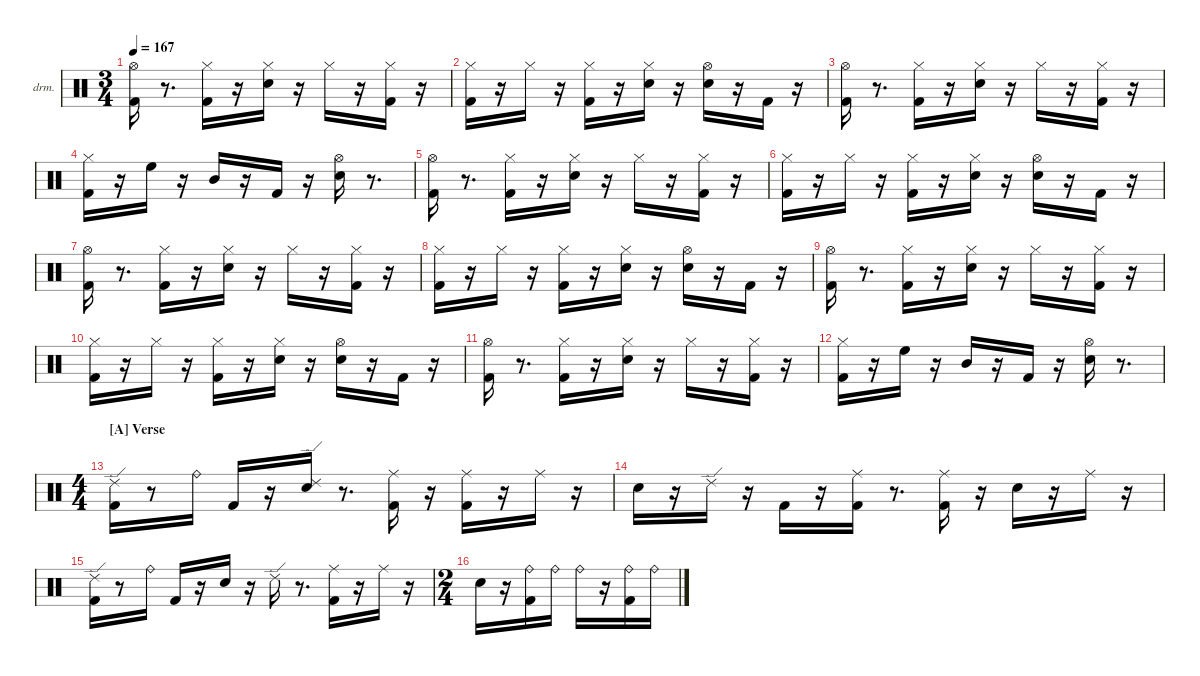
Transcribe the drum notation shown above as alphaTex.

\hideDynamics
\bracketExtendMode nobrackets
\firstSystemTrackNameOrientation horizontal
\otherSystemsTrackNameOrientation horizontal
\track ("Drums" "drm.") {instrument percussion}
\staff {score}
\articulation defaults
\ts (3 4)
\tempo 167
\clef neutral
\ks aminor
("Kick (hit) 2" "Hi-Hat (open)"{acc #}).16{dy ff} r.8{d} ("Kick (hit) 2" "Hi-Hat (closed)"{acc #}).16{dy f} r.16 ("Snare (hit) 2" "Hi-Hat (closed)"{acc #}).16{dy ff} r.16 "Hi-Hat (closed)"{acc #}.16 r.16 ("Kick (hit) 2" "Hi-Hat (closed)"{acc #}).16{dy mf} r.16 |
("Kick (hit) 2" "Hi-Hat (closed)"{acc #}).16{dy fff} r.16 "Hi-Hat (closed)"{acc #}.16{dy p} r.16 ("Kick (hit) 2" "Hi-Hat (closed)"{acc #}).16{dy ff} r.16 ("Snare (hit) 2" "Hi-Hat (closed)"{acc #}).16 r.16 ("Snare (hit) 2" "Hi-Hat (open)"{acc #}).16{dy ppp} r.16 "Kick (hit) 2".16{dy ff} r.16 |
("Kick (hit) 2" "Hi-Hat (open)"{acc #}).16 r.8{d} ("Kick (hit) 2" "Hi-Hat (closed)"{acc #}).16{dy f} r.16 ("Snare (hit) 2" "Hi-Hat (closed)"{acc #}).16{dy ff} r.16 "Hi-Hat (closed)"{acc #}.16 r.16 ("Kick (hit) 2" "Hi-Hat (closed)"{acc #}).16{dy mf} r.16 |
("Kick (hit) 2" "Hi-Hat (closed)"{acc #}).16{dy fff} r.16 "High Floor Tom (hit)".16{dy ff} r.16 "Mid Tom (hit)".16 r.16 "Kick (hit) 2".16 r.16 ("Snare (hit) 2" "Hi-Hat (open)"{acc #}).16 r.8{d} |
("Kick (hit) 2" "Hi-Hat (open)"{acc #}).16 r.8{d} ("Kick (hit) 2" "Hi-Hat (closed)"{acc #}).16{dy f} r.16 ("Snare (hit) 2" "Hi-Hat (closed)"{acc #}).16{dy ff} r.16 "Hi-Hat (closed)"{acc #}.16 r.16 ("Kick (hit) 2" "Hi-Hat (closed)"{acc #}).16{dy mf} r.16 |
("Kick (hit) 2" "Hi-Hat (closed)"{acc #}).16{dy fff} r.16 "Hi-Hat (closed)"{acc #}.16{dy p} r.16 ("Kick (hit) 2" "Hi-Hat (closed)"{acc #}).16{dy ff} r.16 ("Snare (hit) 2" "Hi-Hat (closed)"{acc #}).16 r.16 ("Snare (hit) 2" "Hi-Hat (open)"{acc #}).16{dy ppp} r.16 "Kick (hit) 2".16{dy ff} r.16 |
("Kick (hit) 2" "Hi-Hat (open)"{acc #}).16 r.8{d} ("Kick (hit) 2" "Hi-Hat (closed)"{acc #}).16{dy f} r.16 ("Snare (hit) 2" "Hi-Hat (closed)"{acc #}).16{dy ff} r.16 "Hi-Hat (closed)"{acc #}.16 r.16 ("Kick (hit) 2" "Hi-Hat (closed)"{acc #}).16{dy mf} r.16 |
("Kick (hit) 2" "Hi-Hat (closed)"{acc #}).16{dy fff} r.16 "Hi-Hat (closed)"{acc #}.16{dy p} r.16 ("Kick (hit) 2" "Hi-Hat (closed)"{acc #}).16{dy ff} r.16 ("Snare (hit) 2" "Hi-Hat (closed)"{acc #}).16 r.16 ("Snare (hit) 2" "Hi-Hat (open)"{acc #}).16{dy ppp} r.16 "Kick (hit) 2".16{dy ff} r.16 |
("Kick (hit) 2" "Hi-Hat (open)"{acc #}).16 r.8{d} ("Kick (hit) 2" "Hi-Hat (closed)"{acc #}).16{dy f} r.16 ("Snare (hit) 2" "Hi-Hat (closed)"{acc #}).16{dy ff} r.16 "Hi-Hat (closed)"{acc #}.16 r.16 ("Kick (hit) 2" "Hi-Hat (closed)"{acc #}).16{dy mf} r.16 |
("Kick (hit) 2" "Hi-Hat (closed)"{acc #}).16{dy fff} r.16 "Hi-Hat (closed)"{acc #}.16{dy p} r.16 ("Kick (hit) 2" "Hi-Hat (closed)"{acc #}).16{dy ff} r.16 ("Snare (hit) 2" "Hi-Hat (closed)"{acc #}).16 r.16 ("Snare (hit) 2" "Hi-Hat (open)"{acc #}).16{dy ppp} r.16 "Kick (hit) 2".16{dy ff} r.16 |
("Kick (hit) 2" "Hi-Hat (open)"{acc #}).16 r.8{d} ("Kick (hit) 2" "Hi-Hat (closed)"{acc #}).16{dy f} r.16 ("Snare (hit) 2" "Hi-Hat (closed)"{acc #}).16{dy ff} r.16 "Hi-Hat (closed)"{acc #}.16 r.16 ("Kick (hit) 2" "Hi-Hat (closed)"{acc #}).16{dy mf} r.16 |
("Kick (hit) 2" "Hi-Hat (closed)"{acc #}).16{dy fff} r.16 "High Floor Tom (hit)".16{dy ff} r.16 "Mid Tom (hit)".16 r.16 "Kick (hit) 2".16 r.16 ("Snare (hit) 2" "Hi-Hat (open)"{acc #}).16 r.8{d} |
\ts (4 4)
\section ("A" "Verse")
("Kick (hit) 2" "Ride (edge) 2").16 r.8 "Ride (bell)".16{dy mf} "Kick (hit) 2".16{dy ff} r.16 ("Snare (hit) 2" "Ride (edge) 2").16 r.8{d} ("Kick (hit) 2" "Ride (middle)"{acc #}).16{dy mf} r.16 ("Kick (hit) 2" "Ride (middle)"{acc #}).16{dy ff} r.16 "Ride (middle)"{acc #}.16{dy mp} r.16 |
"Snare (hit) 2".16{dy ff} r.16 "Ride (edge) 2".16{dy f} r.16 "Kick (hit) 2".16{dy mf} r.16 ("Kick (hit) 2" "Ride (middle)"{acc #}).16{dy ff} r.8{d} ("Kick (hit) 2" "Ride (middle)"{acc #}).16 r.16 "Snare (hit) 2".16 r.16 "Ride (middle)"{acc #}.16 r.16 |
("Kick (hit) 2" "Ride (edge) 2").16 r.8 "Ride (bell)".16{dy mf} "Kick (hit) 2".16{dy ff} r.16 "Snare (hit) 2".16 r.16 "Ride (edge) 2".16 r.8{d} ("Kick (hit) 2" "Ride (middle)"{acc #}).16 r.16 "Ride (middle)"{acc #}.16{dy mp} r.16 |
\ts (2 4)
"Snare (hit) 2".16{dy ff} r.16 ("Kick (hit) 2" "Ride (bell)").16{dy f} "Ride (bell)".16{dy mp} "Ride (bell)".16{dy mf} r.16 ("Kick (hit) 2" "Ride (bell)").16{dy f} "Ride (bell)".16{dy mp}
